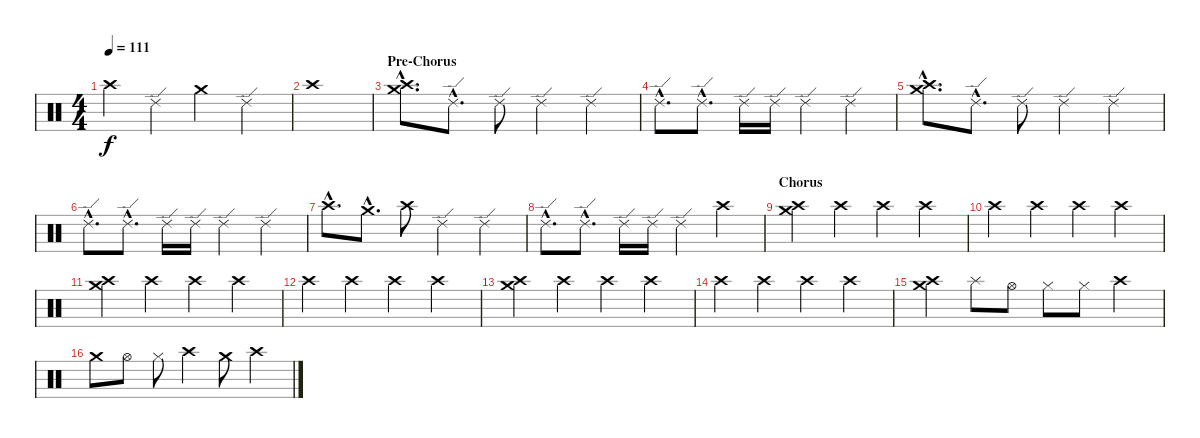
\track "" {instrument percussion}
\staff {score}
\articulation defaults
\ts (4 4)
\tempo 111
\clef neutral
\ks c "Crash high (hit)".4{dy f} "Ride (edge) 2".4 "Crash medium (hit)".4 "Ride (edge) 2".4
|
"Crash high (hit)".1 |
\section ("" "Pre-Chorus")
("Crash medium (hit)"{hac} "Crash high (hit)"{hac}).8{d} "Ride (edge) 2"{hac}.8{d} "Ride (edge) 2".8 "Ride (edge) 2".4 "Ride (edge) 2".4 |
"Ride (edge) 2"{hac}.8{d} "Ride (edge) 2"{hac}.8{d} "Ride (edge) 2".16 "Ride (edge) 2".16 "Ride (edge) 2".4 "Ride (edge) 2".4 |
("Crash medium (hit)"{hac} "Crash high (hit)"{hac}).8{d} "Ride (edge) 2"{hac}.8{d} "Ride (edge) 2".8 "Ride (edge) 2".4 "Ride (edge) 2".4 |
"Ride (edge) 2"{hac}.8{d} "Ride (edge) 2"{hac}.8{d} "Ride (edge) 2".16 "Ride (edge) 2".16 "Ride (edge) 2".4 "Ride (edge) 2".4 |
"Crash high (hit)"{hac}.8{d} "Crash medium (hit)"{hac}.8{d} "Crash high (hit)".8 "Ride (edge) 2".4 "Ride (edge) 2".4 |
"Ride (edge) 2"{hac}.8{d} "Ride (edge) 2"{hac}.8{d} "Ride (edge) 2".16 "Ride (edge) 2".16 "Ride (edge) 2".4 "Crash high (hit)".4 |
\section ("" "Chorus")
("Crash medium (hit)" "Crash high (hit)").4 "Crash high (hit)".4 "Crash high (hit)".4 "Crash high (hit)".4 |
"Crash high (hit)".4 "Crash high (hit)".4 "Crash high (hit)".4 "Crash high (hit)".4 |
("Crash medium (hit)" "Crash high (hit)").4 "Crash high (hit)".4 "Crash high (hit)".4 "Crash high (hit)".4 |
"Crash high (hit)".4 "Crash high (hit)".4 "Crash high (hit)".4 "Crash high (hit)".4 |
("Crash medium (hit)" "Crash high (hit)").4 "Crash high (hit)".4 "Crash high (hit)".4 "Crash high (hit)".4 |
"Crash high (hit)".4 "Crash high (hit)".4 "Crash high (hit)".4 "Crash high (hit)".4 |
("Crash medium (hit)" "Crash high (hit)").4 "Splash (hit)".8 "Hi-Hat (open)".8 "Hi-Hat (closed)".8 "Hi-Hat (closed)".8 "Crash high (hit)".4 |
"Crash medium (hit)".8 "Hi-Hat (open)".8 "Hi-Hat (closed)".8 "Crash high (hit)".4 "Crash medium (hit)".8 "Crash high (hit)".4
